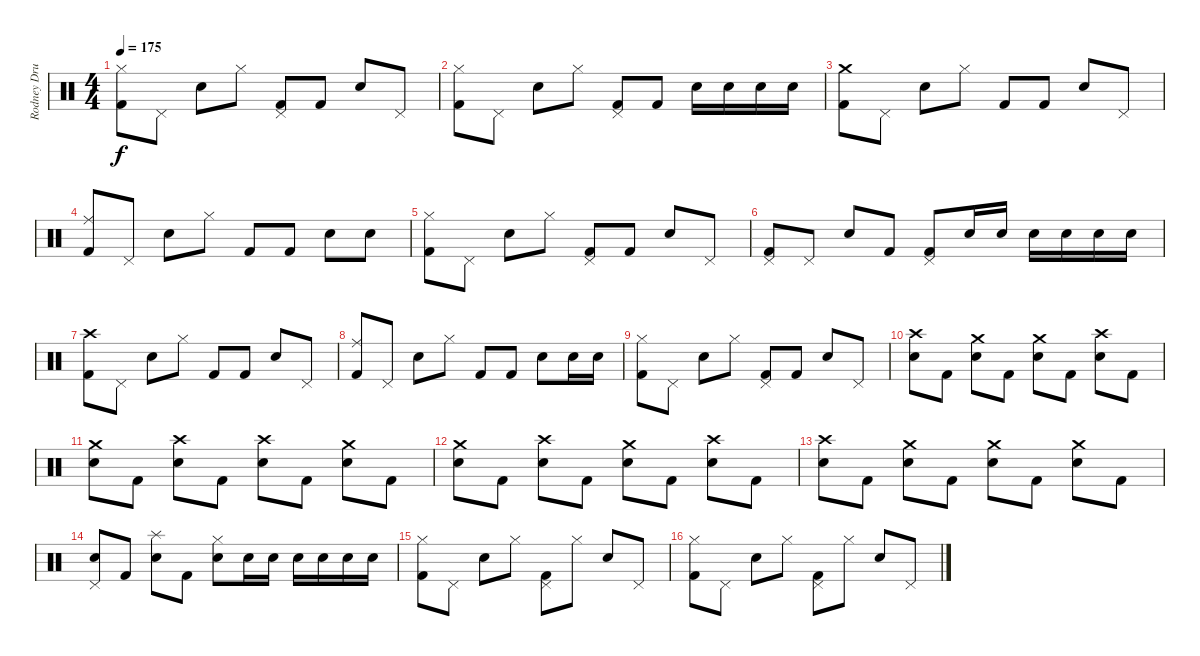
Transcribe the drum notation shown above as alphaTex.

\track ("Rodney Drums" "Rodney Dru") {instrument percussion}
\staff {score}
\articulation defaults
\ts (4 4)
\tempo 175
\clef neutral
\ks c
("Hi-Hat (closed)" "Kick (hit) 2").8{dy f} "Pedal Hi-Hat (hit)".8 "Electric Snare (hit)".8 "Hi-Hat (closed)".8 ("Pedal Hi-Hat (hit)" "Kick (hit) 2").8 "Kick (hit) 2".8 "Electric Snare (hit)".8 "Pedal Hi-Hat (hit)".8 |
("Hi-Hat (closed)" "Kick (hit) 2").8 "Pedal Hi-Hat (hit)".8 "Electric Snare (hit)".8 "Hi-Hat (closed)".8 ("Pedal Hi-Hat (hit)" "Kick (hit) 2").8 "Kick (hit) 2".8 "Electric Snare (hit)".16 "Electric Snare (hit)".16 "Electric Snare (hit)".16 "Electric Snare (hit)".16 |
("Crash medium (hit)" "Kick (hit) 2").8 "Pedal Hi-Hat (hit)".8 "Electric Snare (hit)".8 "Hi-Hat (closed)".8 "Kick (hit) 2".8 "Kick (hit) 2".8 "Electric Snare (hit)".8 "Pedal Hi-Hat (hit)".8 |
("Ride (middle)" "Kick (hit) 2").8 "Pedal Hi-Hat (hit)".8 "Electric Snare (hit)".8 "Hi-Hat (closed)".8 "Kick (hit) 2".8 "Kick (hit) 2".8 "Electric Snare (hit)".8 "Electric Snare (hit)".8 |
("Hi-Hat (closed)" "Kick (hit) 2").8 "Pedal Hi-Hat (hit)".8 "Electric Snare (hit)".8 "Hi-Hat (closed)".8 ("Pedal Hi-Hat (hit)" "Kick (hit) 2").8 "Kick (hit) 2".8 "Electric Snare (hit)".8 "Pedal Hi-Hat (hit)".8 |
("Pedal Hi-Hat (hit)" "Kick (hit) 2").8 "Pedal Hi-Hat (hit)".8 "Electric Snare (hit)".8 "Kick (hit) 2".8 ("Pedal Hi-Hat (hit)" "Kick (hit) 2").8 "Electric Snare (hit)".16 "Electric Snare (hit)".16 "Electric Snare (hit)".16 "Electric Snare (hit)".16 "Electric Snare (hit)".16 "Electric Snare (hit)".16 |
("Crash high (hit)" "Kick (hit) 2").8 "Pedal Hi-Hat (hit)".8 "Electric Snare (hit)".8 "Hi-Hat (closed)".8 "Kick (hit) 2".8 "Kick (hit) 2".8 "Electric Snare (hit)".8 "Pedal Hi-Hat (hit)".8 |
("Ride (middle)" "Kick (hit) 2").8 "Pedal Hi-Hat (hit)".8 "Electric Snare (hit)".8 "Hi-Hat (closed)".8 "Kick (hit) 2".8 "Kick (hit) 2".8 "Electric Snare (hit)".8 "Electric Snare (hit)".16 "Electric Snare (hit)".16 |
("Hi-Hat (closed)" "Kick (hit) 2").8 "Pedal Hi-Hat (hit)".8 "Electric Snare (hit)".8 "Hi-Hat (closed)".8 ("Pedal Hi-Hat (hit)" "Kick (hit) 2").8 "Kick (hit) 2".8 "Electric Snare (hit)".8 "Pedal Hi-Hat (hit)".8 |
("Crash high (hit)" "Electric Snare (hit)").8 "Kick (hit) 2".8 ("Crash medium (hit)" "Electric Snare (hit)").8 "Kick (hit) 2".8 ("Crash medium (hit)" "Electric Snare (hit)").8 "Kick (hit) 2".8 ("Crash high (hit)" "Electric Snare (hit)").8 "Kick (hit) 2".8 |
("Crash medium (hit)" "Electric Snare (hit)").8 "Kick (hit) 2".8 ("Crash high (hit)" "Electric Snare (hit)").8 "Kick (hit) 2".8 ("Crash high (hit)" "Electric Snare (hit)").8 "Kick (hit) 2".8 ("Crash medium (hit)" "Electric Snare (hit)").8 "Kick (hit) 2".8 |
("Crash medium (hit)" "Electric Snare (hit)").8 "Kick (hit) 2".8 ("Crash high (hit)" "Electric Snare (hit)").8 "Kick (hit) 2".8 ("Crash medium (hit)" "Electric Snare (hit)").8 "Kick (hit) 2".8 ("Crash high (hit)" "Electric Snare (hit)").8 "Kick (hit) 2".8 |
("Crash high (hit)" "Electric Snare (hit)").8 "Kick (hit) 2".8 ("Crash medium (hit)" "Electric Snare (hit)").8 "Kick (hit) 2".8 ("Crash medium (hit)" "Electric Snare (hit)").8 "Kick (hit) 2".8 ("Crash medium (hit)" "Electric Snare (hit)").8 "Kick (hit) 2".8 |
("Pedal Hi-Hat (hit)" "Electric Snare (hit)").8 "Kick (hit) 2".8 ("Splash (hit)" "Electric Snare (hit)").8 "Kick (hit) 2".8 ("Hi-Hat (closed)" "Electric Snare (hit)").8 "Electric Snare (hit)".16 "Electric Snare (hit)".16 "Electric Snare (hit)".16 "Electric Snare (hit)".16 "Electric Snare (hit)".16 "Electric Snare (hit)".16 |
("Hi-Hat (closed)" "Kick (hit) 2").8 "Pedal Hi-Hat (hit)".8 "Snare (hit) 2".8 "Hi-Hat (closed)".8 ("Pedal Hi-Hat (hit)" "Kick (hit) 2").8 "Hi-Hat (closed)".8 "Snare (hit) 2".8 "Pedal Hi-Hat (hit)".8 |
("Hi-Hat (closed)" "Kick (hit) 2").8 "Pedal Hi-Hat (hit)".8 "Snare (hit) 2".8 "Hi-Hat (closed)".8 ("Pedal Hi-Hat (hit)" "Kick (hit) 2").8 "Hi-Hat (closed)".8 "Snare (hit) 2".8 "Pedal Hi-Hat (hit)".8
